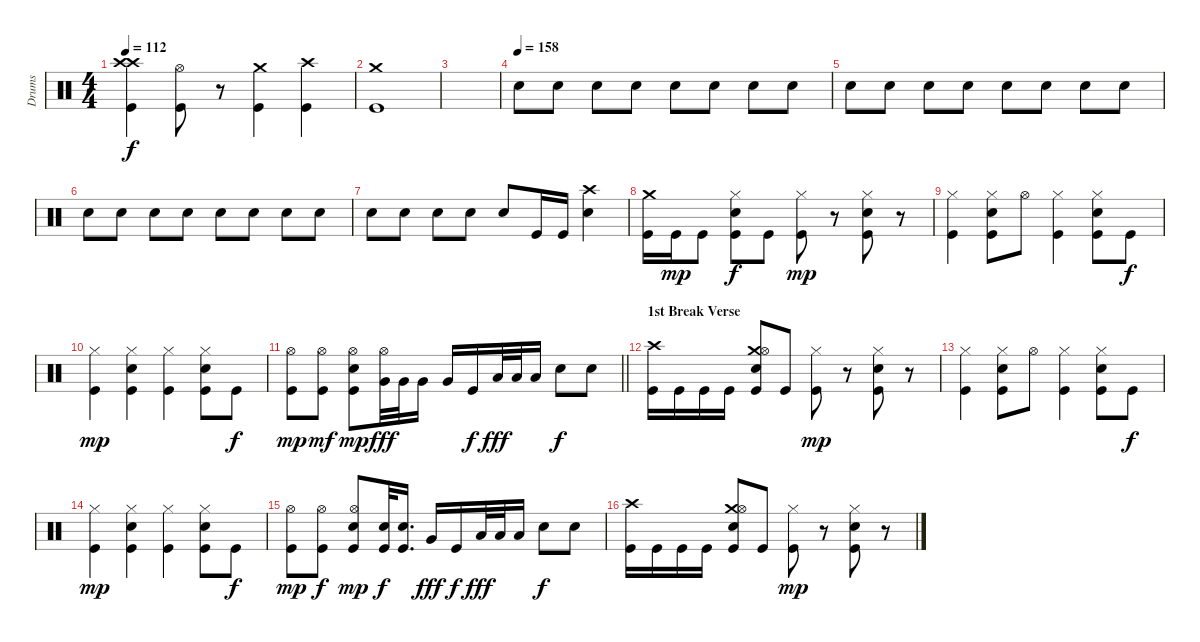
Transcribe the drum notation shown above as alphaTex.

\track ("Drums" "Drums") {instrument percussion}
\staff {score}
\articulation defaults
\ts (4 4)
\tempo 112
\clef neutral
\ks c
("Crash high (hit)" "Crash high (hit)" "Kick (hit)").4{dy f} ("Hi-Hat (open)" "Kick (hit)").8 r.8 ("Crash medium (hit)" "Kick (hit)").4 ("Crash high (hit)" "Kick (hit)").4 |
("Crash medium (hit)" "Kick (hit)").1 |
|
\tempo (158)
"Snare (hit) 2".8{volume 16} "Snare (hit) 2".8 "Snare (hit) 2".8 "Snare (hit) 2".8 "Snare (hit) 2".8 "Snare (hit) 2".8 "Snare (hit) 2".8 "Snare (hit) 2".8 |
"Snare (hit) 2".8 "Snare (hit) 2".8 "Snare (hit) 2".8 "Snare (hit) 2".8 "Snare (hit) 2".8 "Snare (hit) 2".8 "Snare (hit) 2".8 "Snare (hit) 2".8 |
"Snare (hit) 2".8 "Snare (hit) 2".8 "Snare (hit) 2".8 "Snare (hit) 2".8 "Snare (hit) 2".8 "Snare (hit) 2".8 "Snare (hit) 2".8 "Snare (hit) 2".8 |
"Snare (hit) 2".8 "Snare (hit) 2".8 "Snare (hit) 2".8 "Snare (hit) 2".8 "Snare (hit) 2".8 "Kick (hit)".16 "Kick (hit)".16 ("Crash high (hit)" "Snare (hit) 2").4 |
("Crash medium (hit)" "Kick (hit)").16 "Kick (hit)".16{dy mp} "Kick (hit)".8 ("Hi-Hat (closed)" "Snare (hit) 2" "Kick (hit)").8{dy f} "Kick (hit)".8 ("Hi-Hat (closed)" "Kick (hit)").8{dy mp} r.8 ("Hi-Hat (closed)" "Snare (hit) 2" "Kick (hit)").8 r.8 |
("Hi-Hat (closed)" "Kick (hit)").4 ("Hi-Hat (closed)" "Snare (hit) 2" "Kick (hit)").8 "Hi-Hat (open)".8 ("Hi-Hat (closed)" "Kick (hit)").4 ("Hi-Hat (closed)" "Snare (hit) 2" "Kick (hit)").8 "Kick (hit)".8{dy f} |
("Hi-Hat (closed)" "Kick (hit)").4{dy mp} ("Hi-Hat (closed)" "Snare (hit) 2" "Kick (hit)").4 ("Hi-Hat (closed)" "Kick (hit)").4 ("Hi-Hat (closed)" "Snare (hit) 2" "Kick (hit)").8 "Kick (hit)".8{dy f} |
\barLineRight lightlight
("Hi-Hat (open)" "Kick (hit)").8{dy mp} ("Hi-Hat (open)" "Kick (hit)").8{dy mf} ("Hi-Hat (open)" "Snare (hit) 2" "Kick (hit)").8{dy mp} ("Hi-Hat (open)" "Very Low Tom (hit)").32{dy fff balance 16} "Very Low Tom (hit)".32{volume 11 balance 14} "Very Low Tom (hit)".16{balance 10} "Very Low Tom (hit)".16 "Kick (hit)".16{dy f balance 8} "Low Tom (hit)".32{dy fff balance 0} "Low Tom (hit)".32{balance 0} "Low Tom (hit)".16{balance 0} "Snare (hit) 2".8{dy f volume 13 balance 8} "Snare (hit) 2".8 |
\section ("" "1st Break Verse")
("Crash high (hit)" "Kick (hit)").16 "Kick (hit)".16 "Kick (hit)".16 "Kick (hit)".16 ("Crash medium (hit)" "Hi-Hat (open)" "Snare (hit) 2" "Kick (hit)").8 "Kick (hit)".8 ("Hi-Hat (closed)" "Kick (hit)").8{dy mp} r.8 ("Hi-Hat (closed)" "Snare (hit) 2" "Kick (hit)").8 r.8 |
("Hi-Hat (closed)" "Kick (hit)").4 ("Hi-Hat (closed)" "Snare (hit) 2" "Kick (hit)").8 "Hi-Hat (open)".8 ("Hi-Hat (closed)" "Kick (hit)").4 ("Hi-Hat (closed)" "Snare (hit) 2" "Kick (hit)").8 "Kick (hit)".8{dy f} |
("Hi-Hat (closed)" "Kick (hit)").4{dy mp} ("Hi-Hat (closed)" "Snare (hit) 2" "Kick (hit)").4 ("Hi-Hat (closed)" "Kick (hit)").4 ("Hi-Hat (closed)" "Snare (hit) 2" "Kick (hit)").8 "Kick (hit)".8{dy f} |
("Hi-Hat (open)" "Kick (hit)").8{dy mp} ("Hi-Hat (open)" "Kick (hit)").8{dy f} ("Hi-Hat (open)" "Snare (hit) 2" "Kick (hit)").8{dy mp} ("Snare (hit) 2" "Kick (hit)").32{dy f} ("Snare (hit) 2" "Kick (hit)").16{d} "Very Low Tom (hit)".16{dy fff} "Kick (hit)".16{dy f balance 8} "Low Tom (hit)".32{dy fff balance 0} "Low Tom (hit)".32{balance 0} "Low Tom (hit)".16{balance 0} "Snare (hit) 2".8{dy f volume 13 balance 8} "Snare (hit) 2".8 |
("Crash high (hit)" "Kick (hit)").16 "Kick (hit)".16 "Kick (hit)".16 "Kick (hit)".16 ("Crash medium (hit)" "Hi-Hat (open)" "Snare (hit) 2" "Kick (hit)").8 "Kick (hit)".8 ("Hi-Hat (closed)" "Kick (hit)").8{dy mp} r.8 ("Hi-Hat (closed)" "Snare (hit) 2" "Kick (hit)").8 r.8
